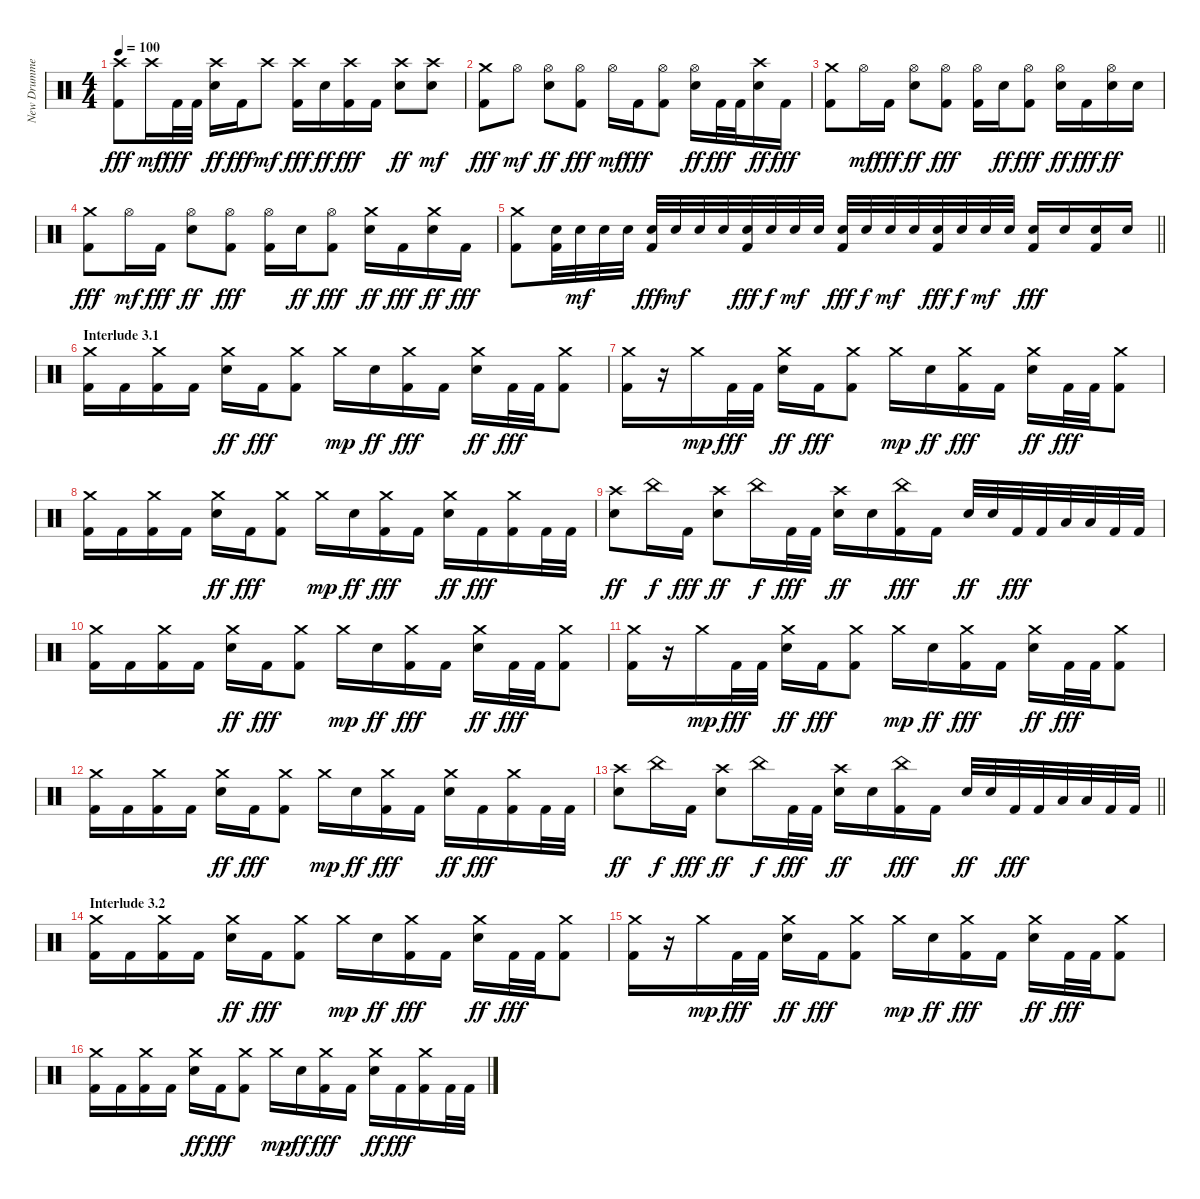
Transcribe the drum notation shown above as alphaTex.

\track ("New Drummer" "New Drumme") {instrument percussion}
\staff {score}
\articulation defaults
\ts (4 4)
\tempo 100
\clef neutral
\ks c
("Crash high (hit)" "Kick (hit) 2").8{dy fff} "Crash high (hit)".16{dy mf} "Kick (hit) 2".32{dy fff} "Kick (hit) 2".32 ("Crash high (hit)" "Electric Snare (hit)").16{dy ff} "Kick (hit) 2".16{dy fff} "Crash high (hit)".8{dy mf} ("Crash high (hit)" "Kick (hit) 2").16{dy fff} "Electric Snare (hit)".16{dy ff} ("Crash high (hit)" "Kick (hit) 2").16{dy fff} "Kick (hit) 2".16 ("Crash high (hit)" "Electric Snare (hit)").8{dy ff} ("Crash high (hit)" "Electric Snare (hit)").8{dy mf} |
("Crash medium (hit)" "Kick (hit) 2").8{dy fff} "Hi-Hat (open)".8{dy mf} ("Hi-Hat (open)" "Electric Snare (hit)").8{dy ff} ("Hi-Hat (open)" "Kick (hit) 2").8{dy fff} "Hi-Hat (open)".16{dy mf} "Kick (hit) 2".16{dy fff} ("Hi-Hat (open)" "Kick (hit) 2").8 ("Hi-Hat (open)" "Electric Snare (hit)").16{dy ff} "Kick (hit) 2".32{dy fff} "Kick (hit) 2".32 ("Crash high (hit)" "Electric Snare (hit)").16{dy ff} "Kick (hit) 2".16{dy fff} |
("Crash medium (hit)" "Kick (hit) 2").8 "Hi-Hat (open)".16{dy mf} "Kick (hit) 2".16{dy fff} ("Hi-Hat (open)" "Electric Snare (hit)").8{dy ff} ("Hi-Hat (open)" "Kick (hit) 2").8{dy fff} ("Hi-Hat (open)" "Kick (hit) 2").16 "Electric Snare (hit)".16{dy ff} ("Hi-Hat (open)" "Kick (hit) 2").8{dy fff} ("Hi-Hat (open)" "Electric Snare (hit)").16{dy ff} "Kick (hit) 2".16{dy fff} ("Hi-Hat (open)" "Electric Snare (hit)").16{dy ff} "Electric Snare (hit)".16 |
("Crash medium (hit)" "Kick (hit) 2").8{dy fff} "Hi-Hat (open)".16{dy mf} "Kick (hit) 2".16{dy fff} ("Hi-Hat (open)" "Electric Snare (hit)").8{dy ff} ("Hi-Hat (open)" "Kick (hit) 2").8{dy fff} ("Hi-Hat (open)" "Kick (hit) 2").16 "Electric Snare (hit)".16{dy ff} ("Hi-Hat (open)" "Kick (hit) 2").8{dy fff} ("Crash medium (hit)" "Electric Snare (hit)").16{dy ff} "Kick (hit) 2".16{dy fff} ("Crash medium (hit)" "Electric Snare (hit)").16{dy ff} "Kick (hit) 2".16{dy fff} |
\barLineRight lightlight
("Crash medium (hit)" "Kick (hit) 2").8 ("Electric Snare (hit)" "Kick (hit) 2").32 "Electric Snare (hit)".32{dy mf} "Electric Snare (hit)".32 "Electric Snare (hit)".32 ("Electric Snare (hit)" "Kick (hit) 2").32{dy fff} "Electric Snare (hit)".32{dy mf} "Electric Snare (hit)".32 "Electric Snare (hit)".32 ("Electric Snare (hit)" "Kick (hit) 2").32{dy fff} "Electric Snare (hit)".32{dy f} "Electric Snare (hit)".32{dy mf} "Electric Snare (hit)".32 ("Electric Snare (hit)" "Kick (hit) 2").32{dy fff} "Electric Snare (hit)".32{dy f} "Electric Snare (hit)".32{dy mf} "Electric Snare (hit)".32 ("Electric Snare (hit)" "Kick (hit) 2").32{dy fff} "Electric Snare (hit)".32{dy f} "Electric Snare (hit)".32{dy mf} "Electric Snare (hit)".32 ("Electric Snare (hit)" "Kick (hit) 2").16{dy fff} "Electric Snare (hit)".16 ("Electric Snare (hit)" "Kick (hit) 2").16 "Electric Snare (hit)".16 |
\section ("" "Interlude 3.1")
("Crash medium (hit)" "Kick (hit) 2").16 "Kick (hit) 2".16 ("Crash medium (hit)" "Kick (hit) 2").16 "Kick (hit) 2".16 ("Crash medium (hit)" "Electric Snare (hit)").16{dy ff} "Kick (hit) 2".16{dy fff} ("Crash medium (hit)" "Kick (hit) 2").8 "Crash medium (hit)".16{dy mp} "Electric Snare (hit)".16{dy ff} ("Crash medium (hit)" "Kick (hit) 2").16{dy fff} "Kick (hit) 2".16 ("Crash medium (hit)" "Electric Snare (hit)").16{dy ff} "Kick (hit) 2".32{dy fff} "Kick (hit) 2".32 ("Crash medium (hit)" "Kick (hit) 2").8 |
("Crash medium (hit)" "Kick (hit) 2").16 r.16 "Crash medium (hit)".16{dy mp} "Kick (hit) 2".32{dy fff} "Kick (hit) 2".32 ("Crash medium (hit)" "Electric Snare (hit)").16{dy ff} "Kick (hit) 2".16{dy fff} ("Crash medium (hit)" "Kick (hit) 2").8 "Crash medium (hit)".16{dy mp} "Electric Snare (hit)".16{dy ff} ("Crash medium (hit)" "Kick (hit) 2").16{dy fff} "Kick (hit) 2".16 ("Crash medium (hit)" "Electric Snare (hit)").16{dy ff} "Kick (hit) 2".32{dy fff} "Kick (hit) 2".32 ("Crash medium (hit)" "Kick (hit) 2").8 |
("Crash medium (hit)" "Kick (hit) 2").16 "Kick (hit) 2".16 ("Crash medium (hit)" "Kick (hit) 2").16 "Kick (hit) 2".16 ("Crash medium (hit)" "Electric Snare (hit)").16{dy ff} "Kick (hit) 2".16{dy fff} ("Crash medium (hit)" "Kick (hit) 2").8 "Crash medium (hit)".16{dy mp} "Electric Snare (hit)".16{dy ff} ("Crash medium (hit)" "Kick (hit) 2").16{dy fff} "Kick (hit) 2".16 ("Crash medium (hit)" "Electric Snare (hit)").16{dy ff} "Kick (hit) 2".16{dy fff} ("Crash medium (hit)" "Kick (hit) 2").16 "Kick (hit) 2".32 "Kick (hit) 2".32 |
("Crash high (hit)" "Electric Snare (hit)").8{dy ff} "China (hit)".16{dy f} "Kick (hit) 2".16{dy fff} ("Crash high (hit)" "Electric Snare (hit)").8{dy ff} "China (hit)".16{dy f} "Kick (hit) 2".32{dy fff} "Kick (hit) 2".32 ("Crash high (hit)" "Electric Snare (hit)").16{dy ff} "Electric Snare (hit)".16 ("China (hit)" "Kick (hit) 2").16{dy fff} "Kick (hit) 2".16 "Electric Snare (hit)".32{dy ff} "Electric Snare (hit)".32 "Kick (hit) 2".32{dy fff} "Kick (hit) 2".32 "Low Tom (hit)".32 "Low Tom (hit)".32 "Kick (hit) 2".32 "Kick (hit) 2".32 |
("Crash medium (hit)" "Kick (hit) 2").16 "Kick (hit) 2".16 ("Crash medium (hit)" "Kick (hit) 2").16 "Kick (hit) 2".16 ("Crash medium (hit)" "Electric Snare (hit)").16{dy ff} "Kick (hit) 2".16{dy fff} ("Crash medium (hit)" "Kick (hit) 2").8 "Crash medium (hit)".16{dy mp} "Electric Snare (hit)".16{dy ff} ("Crash medium (hit)" "Kick (hit) 2").16{dy fff} "Kick (hit) 2".16 ("Crash medium (hit)" "Electric Snare (hit)").16{dy ff} "Kick (hit) 2".32{dy fff} "Kick (hit) 2".32 ("Crash medium (hit)" "Kick (hit) 2").8 |
("Crash medium (hit)" "Kick (hit) 2").16 r.16 "Crash medium (hit)".16{dy mp} "Kick (hit) 2".32{dy fff} "Kick (hit) 2".32 ("Crash medium (hit)" "Electric Snare (hit)").16{dy ff} "Kick (hit) 2".16{dy fff} ("Crash medium (hit)" "Kick (hit) 2").8 "Crash medium (hit)".16{dy mp} "Electric Snare (hit)".16{dy ff} ("Crash medium (hit)" "Kick (hit) 2").16{dy fff} "Kick (hit) 2".16 ("Crash medium (hit)" "Electric Snare (hit)").16{dy ff} "Kick (hit) 2".32{dy fff} "Kick (hit) 2".32 ("Crash medium (hit)" "Kick (hit) 2").8 |
("Crash medium (hit)" "Kick (hit) 2").16 "Kick (hit) 2".16 ("Crash medium (hit)" "Kick (hit) 2").16 "Kick (hit) 2".16 ("Crash medium (hit)" "Electric Snare (hit)").16{dy ff} "Kick (hit) 2".16{dy fff} ("Crash medium (hit)" "Kick (hit) 2").8 "Crash medium (hit)".16{dy mp} "Electric Snare (hit)".16{dy ff} ("Crash medium (hit)" "Kick (hit) 2").16{dy fff} "Kick (hit) 2".16 ("Crash medium (hit)" "Electric Snare (hit)").16{dy ff} "Kick (hit) 2".16{dy fff} ("Crash medium (hit)" "Kick (hit) 2").16 "Kick (hit) 2".32 "Kick (hit) 2".32 |
\barLineRight lightlight
("Crash high (hit)" "Electric Snare (hit)").8{dy ff} "China (hit)".16{dy f} "Kick (hit) 2".16{dy fff} ("Crash high (hit)" "Electric Snare (hit)").8{dy ff} "China (hit)".16{dy f} "Kick (hit) 2".32{dy fff} "Kick (hit) 2".32 ("Crash high (hit)" "Electric Snare (hit)").16{dy ff} "Electric Snare (hit)".16 ("China (hit)" "Kick (hit) 2").16{dy fff} "Kick (hit) 2".16 "Electric Snare (hit)".32{dy ff} "Electric Snare (hit)".32 "Kick (hit) 2".32{dy fff} "Kick (hit) 2".32 "Low Tom (hit)".32 "Low Tom (hit)".32 "Kick (hit) 2".32 "Kick (hit) 2".32 |
\section ("" "Interlude 3.2")
("Crash medium (hit)" "Kick (hit) 2").16 "Kick (hit) 2".16 ("Crash medium (hit)" "Kick (hit) 2").16 "Kick (hit) 2".16 ("Crash medium (hit)" "Electric Snare (hit)").16{dy ff} "Kick (hit) 2".16{dy fff} ("Crash medium (hit)" "Kick (hit) 2").8 "Crash medium (hit)".16{dy mp} "Electric Snare (hit)".16{dy ff} ("Crash medium (hit)" "Kick (hit) 2").16{dy fff} "Kick (hit) 2".16 ("Crash medium (hit)" "Electric Snare (hit)").16{dy ff} "Kick (hit) 2".32{dy fff} "Kick (hit) 2".32 ("Crash medium (hit)" "Kick (hit) 2").8 |
("Crash medium (hit)" "Kick (hit) 2").16 r.16 "Crash medium (hit)".16{dy mp} "Kick (hit) 2".32{dy fff} "Kick (hit) 2".32 ("Crash medium (hit)" "Electric Snare (hit)").16{dy ff} "Kick (hit) 2".16{dy fff} ("Crash medium (hit)" "Kick (hit) 2").8 "Crash medium (hit)".16{dy mp} "Electric Snare (hit)".16{dy ff} ("Crash medium (hit)" "Kick (hit) 2").16{dy fff} "Kick (hit) 2".16 ("Crash medium (hit)" "Electric Snare (hit)").16{dy ff} "Kick (hit) 2".32{dy fff} "Kick (hit) 2".32 ("Crash medium (hit)" "Kick (hit) 2").8 |
("Crash medium (hit)" "Kick (hit) 2").16 "Kick (hit) 2".16 ("Crash medium (hit)" "Kick (hit) 2").16 "Kick (hit) 2".16 ("Crash medium (hit)" "Electric Snare (hit)").16{dy ff} "Kick (hit) 2".16{dy fff} ("Crash medium (hit)" "Kick (hit) 2").8 "Crash medium (hit)".16{dy mp} "Electric Snare (hit)".16{dy ff} ("Crash medium (hit)" "Kick (hit) 2").16{dy fff} "Kick (hit) 2".16 ("Crash medium (hit)" "Electric Snare (hit)").16{dy ff} "Kick (hit) 2".16{dy fff} ("Crash medium (hit)" "Kick (hit) 2").16 "Kick (hit) 2".32 "Kick (hit) 2".32
